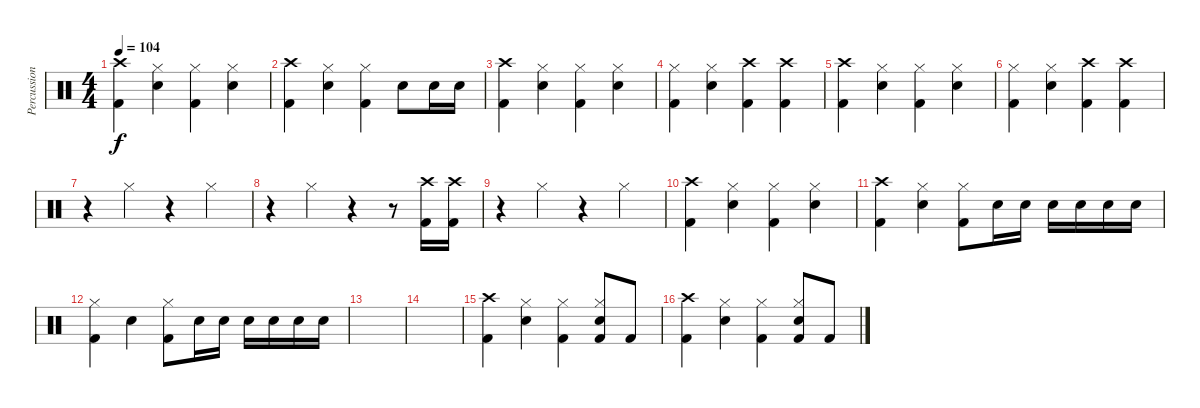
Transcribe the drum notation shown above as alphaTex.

\track ("Percussion" "Percussion") {instrument percussion}
\staff {score}
\articulation defaults
\ts (4 4)
\tempo 104
\clef neutral
\ks c
("Crash high (hit)" "Kick (hit) 2").4{dy f} ("Hi-Hat (closed)" "Snare (hit) 2").4 ("Hi-Hat (closed)" "Kick (hit) 2").4 ("Hi-Hat (closed)" "Snare (hit) 2").4 |
("Crash high (hit)" "Kick (hit) 2").4 ("Hi-Hat (closed)" "Snare (hit) 2").4 ("Hi-Hat (closed)" "Kick (hit) 2").4 "Snare (hit) 2".8 "Snare (hit) 2".16 "Snare (hit) 2".16 |
("Crash high (hit)" "Kick (hit) 2").4 ("Hi-Hat (closed)" "Snare (hit) 2").4 ("Hi-Hat (closed)" "Kick (hit) 2").4 ("Hi-Hat (closed)" "Snare (hit) 2").4 |
("Hi-Hat (closed)" "Kick (hit) 2").4 ("Hi-Hat (closed)" "Snare (hit) 2").4 ("Crash high (hit)" "Kick (hit) 2").4 ("Crash high (hit)" "Kick (hit) 2").4 |
("Crash high (hit)" "Kick (hit) 2").4 ("Hi-Hat (closed)" "Snare (hit) 2").4 ("Hi-Hat (closed)" "Kick (hit) 2").4 ("Hi-Hat (closed)" "Snare (hit) 2").4 |
("Hi-Hat (closed)" "Kick (hit) 2").4 ("Hi-Hat (closed)" "Snare (hit) 2").4 ("Crash high (hit)" "Kick (hit) 2").4 ("Crash high (hit)" "Kick (hit) 2").4 |
r.4 "Hi-Hat (closed)".4 r.4 "Hi-Hat (closed)".4 |
r.4 "Hi-Hat (closed)".4 r.4 r.8 ("Crash high (hit)" "Kick (hit) 2").16 ("Crash high (hit)" "Kick (hit) 2").16 |
r.4 "Hi-Hat (closed)".4 r.4 "Hi-Hat (closed)".4 |
("Crash high (hit)" "Kick (hit) 2").4 ("Hi-Hat (closed)" "Snare (hit) 2").4 ("Hi-Hat (closed)" "Kick (hit) 2").4 ("Hi-Hat (closed)" "Snare (hit) 2").4 |
("Crash high (hit)" "Kick (hit) 2").4 ("Hi-Hat (closed)" "Snare (hit) 2").4 ("Hi-Hat (closed)" "Kick (hit) 2").8 "Snare (hit) 2".16 "Snare (hit) 2".16 "Snare (hit) 2".16 "Snare (hit) 2".16 "Snare (hit) 2".16 "Snare (hit) 2".16 |
("Hi-Hat (closed)" "Kick (hit) 2").4 "Snare (hit) 2".4 ("Hi-Hat (closed)" "Kick (hit) 2").8 "Snare (hit) 2".16 "Snare (hit) 2".16 "Snare (hit) 2".16 "Snare (hit) 2".16 "Snare (hit) 2".16 "Snare (hit) 2".16 |
|
|
("Crash high (hit)" "Kick (hit) 2").4 ("Hi-Hat (closed)" "Snare (hit) 2").4 ("Hi-Hat (closed)" "Kick (hit) 2").4 ("Hi-Hat (closed)" "Snare (hit) 2" "Kick (hit) 2").8 "Kick (hit) 2".8 |
("Crash high (hit)" "Kick (hit) 2").4 ("Hi-Hat (closed)" "Snare (hit) 2").4 ("Hi-Hat (closed)" "Kick (hit) 2").4 ("Hi-Hat (closed)" "Snare (hit) 2" "Kick (hit) 2").8 "Kick (hit) 2".8
